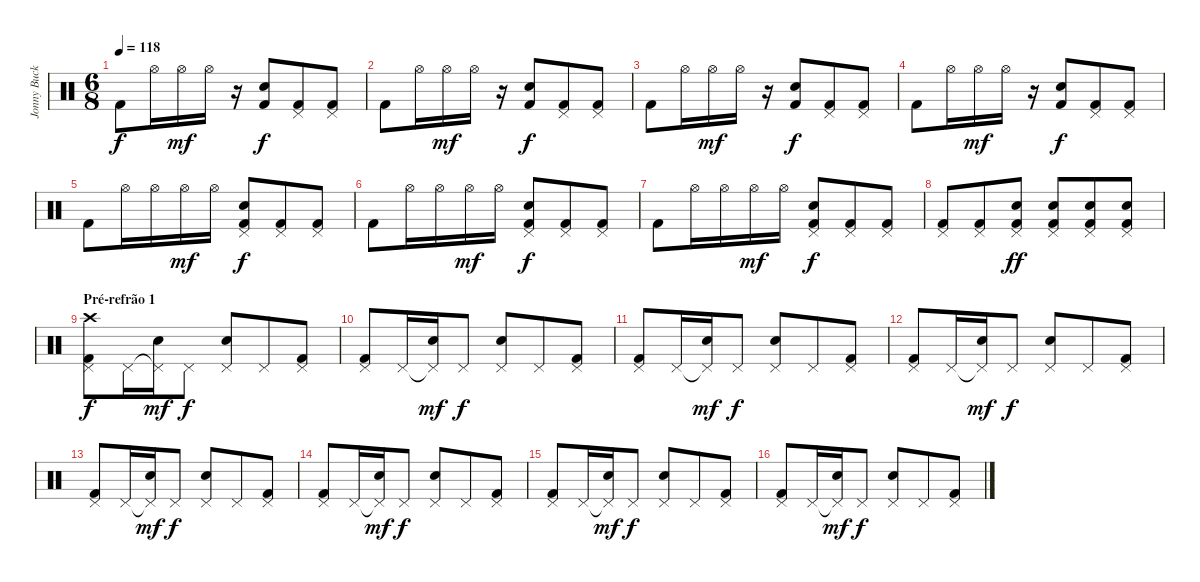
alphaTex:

\track ("Jonny Buckland (batera)" "Jonny Buck") {instrument percussion}
\staff {score}
\articulation defaults
\ts (6 8)
\tempo 118
\clef neutral
\ks c "Kick (hit) 2".8{dy f} "Hi-Hat (open)".16 "Hi-Hat (open)".16{dy mf} "Hi-Hat (open)".16
r.16 ("Electric Snare (hit)" "Kick (hit) 2").8{dy f} ("Pedal Hi-Hat (hit)" "Kick (hit) 2").8 ("Pedal Hi-Hat (hit)" "Kick (hit) 2").8 |
"Kick (hit) 2".8 "Hi-Hat (open)".16 "Hi-Hat (open)".16{dy mf} "Hi-Hat (open)".16 r.16 ("Electric Snare (hit)" "Kick (hit) 2").8{dy f} ("Pedal Hi-Hat (hit)" "Kick (hit) 2").8 ("Pedal Hi-Hat (hit)" "Kick (hit) 2").8 |
"Kick (hit) 2".8 "Hi-Hat (open)".16 "Hi-Hat (open)".16{dy mf} "Hi-Hat (open)".16 r.16 ("Electric Snare (hit)" "Kick (hit) 2").8{dy f} ("Pedal Hi-Hat (hit)" "Kick (hit) 2").8 ("Pedal Hi-Hat (hit)" "Kick (hit) 2").8 |
"Kick (hit) 2".8 "Hi-Hat (open)".16 "Hi-Hat (open)".16{dy mf} "Hi-Hat (open)".16 r.16 ("Electric Snare (hit)" "Kick (hit) 2").8{dy f} ("Pedal Hi-Hat (hit)" "Kick (hit) 2").8 ("Pedal Hi-Hat (hit)" "Kick (hit) 2").8 |
"Kick (hit) 2".8 "Hi-Hat (open)".16 "Hi-Hat (open)".16 "Hi-Hat (open)".16{dy mf} "Hi-Hat (open)".16 ("Pedal Hi-Hat (hit)" "Electric Snare (hit)" "Kick (hit) 2").8{dy f} ("Pedal Hi-Hat (hit)" "Kick (hit) 2").8 ("Pedal Hi-Hat (hit)" "Kick (hit) 2").8 |
"Kick (hit) 2".8 "Hi-Hat (open)".16 "Hi-Hat (open)".16 "Hi-Hat (open)".16{dy mf} "Hi-Hat (open)".16 ("Pedal Hi-Hat (hit)" "Electric Snare (hit)" "Kick (hit) 2").8{dy f} ("Pedal Hi-Hat (hit)" "Kick (hit) 2").8 ("Pedal Hi-Hat (hit)" "Kick (hit) 2").8 |
"Kick (hit) 2".8 "Hi-Hat (open)".16 "Hi-Hat (open)".16 "Hi-Hat (open)".16{dy mf} "Hi-Hat (open)".16 ("Pedal Hi-Hat (hit)" "Electric Snare (hit)" "Kick (hit) 2").8{dy f} ("Pedal Hi-Hat (hit)" "Kick (hit) 2").8 ("Pedal Hi-Hat (hit)" "Kick (hit) 2").8 |
("Pedal Hi-Hat (hit)" "Kick (hit) 2").8 ("Pedal Hi-Hat (hit)" "Kick (hit) 2").8 ("Pedal Hi-Hat (hit)" "Electric Snare (hit)" "Kick (hit) 2").8{dy ff} ("Pedal Hi-Hat (hit)" "Electric Snare (hit)" "Kick (hit) 2").8 ("Pedal Hi-Hat (hit)" "Electric Snare (hit)" "Kick (hit) 2").8 ("Pedal Hi-Hat (hit)" "Electric Snare (hit)" "Kick (hit) 2").8 |
\section ("" "Pré-refrão 1")
("Crash high (hit)" "Pedal Hi-Hat (hit)" "Kick (hit) 2").8{dy f} "Pedal Hi-Hat (hit)".16 ("Pedal Hi-Hat (hit)"{t} "Snare (hit) 2").16{dy mf} "Pedal Hi-Hat (hit)".8{dy f} ("Pedal Hi-Hat (hit)" "Electric Snare (hit)").8 "Pedal Hi-Hat (hit)".8 ("Pedal Hi-Hat (hit)" "Kick (hit) 2").8 |
("Pedal Hi-Hat (hit)" "Kick (hit) 2").8 "Pedal Hi-Hat (hit)".16 ("Pedal Hi-Hat (hit)"{t} "Snare (hit) 2").16{dy mf} "Pedal Hi-Hat (hit)".8{dy f} ("Pedal Hi-Hat (hit)" "Electric Snare (hit)").8 "Pedal Hi-Hat (hit)".8 ("Pedal Hi-Hat (hit)" "Kick (hit) 2").8 |
("Pedal Hi-Hat (hit)" "Kick (hit) 2").8 "Pedal Hi-Hat (hit)".16 ("Pedal Hi-Hat (hit)"{t} "Snare (hit) 2").16{dy mf} "Pedal Hi-Hat (hit)".8{dy f} ("Pedal Hi-Hat (hit)" "Electric Snare (hit)").8 "Pedal Hi-Hat (hit)".8 ("Pedal Hi-Hat (hit)" "Kick (hit) 2").8 |
("Pedal Hi-Hat (hit)" "Kick (hit) 2").8 "Pedal Hi-Hat (hit)".16 ("Pedal Hi-Hat (hit)"{t} "Snare (hit) 2").16{dy mf} "Pedal Hi-Hat (hit)".8{dy f} ("Pedal Hi-Hat (hit)" "Electric Snare (hit)").8 "Pedal Hi-Hat (hit)".8 ("Pedal Hi-Hat (hit)" "Kick (hit) 2").8 |
("Pedal Hi-Hat (hit)" "Kick (hit) 2").8 "Pedal Hi-Hat (hit)".16 ("Pedal Hi-Hat (hit)"{t} "Snare (hit) 2").16{dy mf} "Pedal Hi-Hat (hit)".8{dy f} ("Pedal Hi-Hat (hit)" "Electric Snare (hit)").8 "Pedal Hi-Hat (hit)".8 ("Pedal Hi-Hat (hit)" "Kick (hit) 2").8 |
("Pedal Hi-Hat (hit)" "Kick (hit) 2").8 "Pedal Hi-Hat (hit)".16 ("Pedal Hi-Hat (hit)"{t} "Snare (hit) 2").16{dy mf} "Pedal Hi-Hat (hit)".8{dy f} ("Pedal Hi-Hat (hit)" "Electric Snare (hit)").8 "Pedal Hi-Hat (hit)".8 ("Pedal Hi-Hat (hit)" "Kick (hit) 2").8 |
("Pedal Hi-Hat (hit)" "Kick (hit) 2").8 "Pedal Hi-Hat (hit)".16 ("Pedal Hi-Hat (hit)"{t} "Snare (hit) 2").16{dy mf} "Pedal Hi-Hat (hit)".8{dy f} ("Pedal Hi-Hat (hit)" "Electric Snare (hit)").8 "Pedal Hi-Hat (hit)".8 ("Pedal Hi-Hat (hit)" "Kick (hit) 2").8 |
("Pedal Hi-Hat (hit)" "Kick (hit) 2").8 "Pedal Hi-Hat (hit)".16 ("Pedal Hi-Hat (hit)"{t} "Snare (hit) 2").16{dy mf} "Pedal Hi-Hat (hit)".8{dy f} ("Pedal Hi-Hat (hit)" "Electric Snare (hit)").8 "Pedal Hi-Hat (hit)".8 ("Pedal Hi-Hat (hit)" "Kick (hit) 2").8
